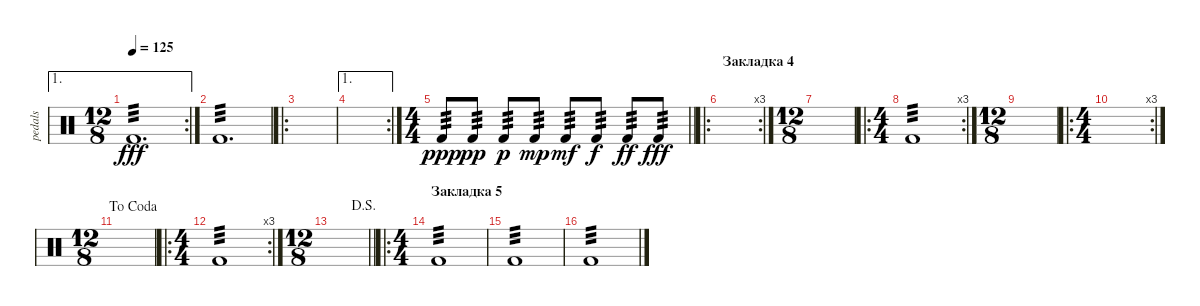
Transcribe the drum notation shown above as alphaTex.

\track ("pedals" "pedals") {instrument percussion}
\staff {score}
\articulation defaults
\ae 1
\rc 2
\ts (12 8)
\tempo 125
\clef neutral
\ks c "Kick (hit) 2".1{d tp 3 dy fff}
|
"Kick (hit) 2".1{d tp 3} |
\ro
|
\ae 1
\rc 2
|
\ts (4 4)
\barLineRight lightlight "Kick (hit) 2".8{tp 3 dy ppp} "Kick (hit) 2".8{tp 3 dy pp} "Kick (hit) 2".8{tp 3 dy p} "Kick (hit) 2".8{tp 3 dy mp} "Kick (hit) 2".8{tp 3 dy mf} "Kick (hit) 2".8{tp 3 dy f} "Kick (hit) 2".8{tp 3 dy ff} "Kick (hit) 2".8{tp 3 dy fff}
|
\ro
\rc 3
\section ("" "Закладка 4")
|
\ts (12 8)
|
\ro
\rc 3
\ts (4 4)
"Kick (hit) 2".1{tp 3} |
\ts (12 8)
|
\ro
\rc 3
\ts (4 4)
|
\ts (12 8)
\jump dacoda
|
\ro
\rc 3
\ts (4 4)
"Kick (hit) 2".1{tp 3} |
\ts (12 8)
\jump dalsegno
\barLineRight lightlight
|
\ro
\ts (4 4)
\section ("" "Закладка 5")
"Kick (hit) 2".1{tp 3} |
"Kick (hit) 2".1{tp 3} |
"Kick (hit) 2".1{tp 3}
